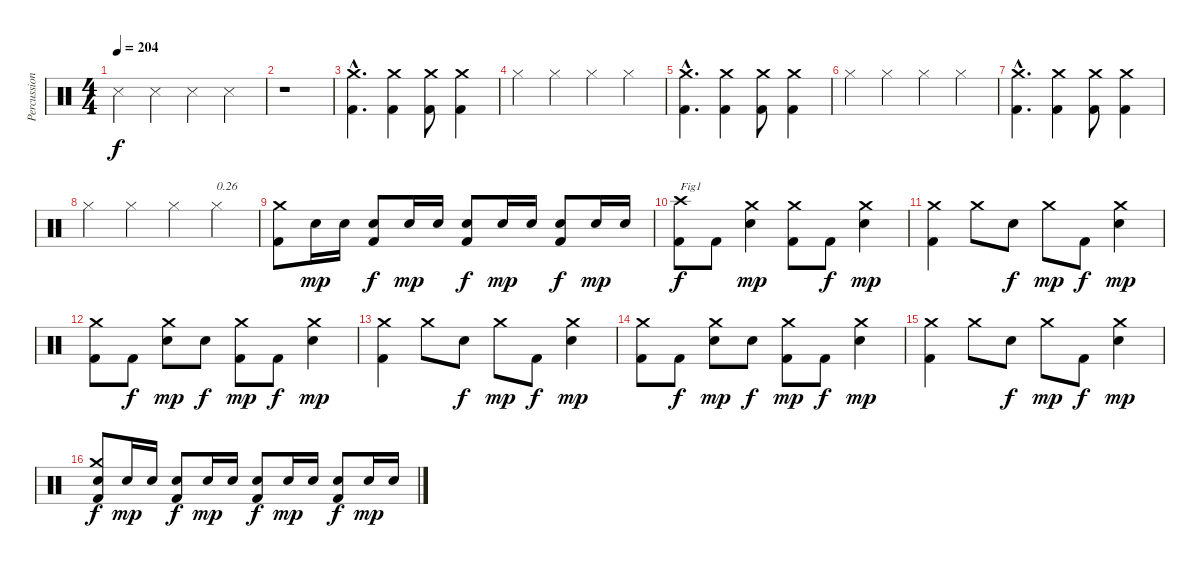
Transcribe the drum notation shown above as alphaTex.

\track ("Percussions" "Percussion") {instrument percussion}
\staff {score}
\articulation defaults
\ts (4 4)
\tempo 204
\clef neutral
\ks c "Metronome (hit)".4{dy f} "Metronome (hit)".4 "Metronome (hit)".4 "Metronome (hit)".4
|
r.1 |
("Kick (hit) 2"{hac} "Crash medium (hit)"{hac}).4{d} ("Kick (hit) 2" "Crash medium (hit)").4 ("Kick (hit) 2" "Crash medium (hit)").8 ("Kick (hit) 2" "Crash medium (hit)").4 |
"Hi-Hat (closed)".4 "Hi-Hat (closed)".4 "Hi-Hat (closed)".4 "Hi-Hat (closed)".4 |
("Kick (hit) 2"{hac} "Crash medium (hit)"{hac}).4{d} ("Kick (hit) 2" "Crash medium (hit)").4 ("Kick (hit) 2" "Crash medium (hit)").8 ("Kick (hit) 2" "Crash medium (hit)").4 |
"Hi-Hat (closed)".4 "Hi-Hat (closed)".4 "Hi-Hat (closed)".4 "Hi-Hat (closed)".4 |
("Kick (hit) 2"{hac} "Crash medium (hit)"{hac}).4{d} ("Kick (hit) 2" "Crash medium (hit)").4 ("Kick (hit) 2" "Crash medium (hit)").8 ("Kick (hit) 2" "Crash medium (hit)").4 |
"Hi-Hat (closed)".4 "Hi-Hat (closed)".4 "Hi-Hat (closed)".4 "Hi-Hat (closed)".4{txt "0.26"} |
("Kick (hit) 2" "Crash medium (hit)").8 "Electric Snare (hit)".16{dy mp} "Electric Snare (hit)".16 ("Kick (hit) 2" "Electric Snare (hit)").8{dy f} "Electric Snare (hit)".16{dy mp} "Electric Snare (hit)".16 ("Kick (hit) 2" "Electric Snare (hit)").8{dy f} "Electric Snare (hit)".16{dy mp} "Electric Snare (hit)".16 ("Kick (hit) 2" "Electric Snare (hit)").8{dy f} "Electric Snare (hit)".16{dy mp} "Electric Snare (hit)".16 |
("Kick (hit) 2" "Crash high (hit)").8{txt "Fig1" dy f} "Kick (hit) 2".8 ("Electric Snare (hit)" "Crash medium (hit)").4{dy mp} ("Kick (hit) 2" "Crash medium (hit)").8 "Kick (hit) 2".8{dy f} ("Electric Snare (hit)" "Crash medium (hit)").4{dy mp} |
("Kick (hit) 2" "Crash medium (hit)").4 "Crash medium (hit)".8 "Electric Snare (hit)".8{dy f} "Crash medium (hit)".8{dy mp} "Kick (hit) 2".8{dy f} ("Electric Snare (hit)" "Crash medium (hit)").4{dy mp} |
("Kick (hit) 2" "Crash medium (hit)").8 "Kick (hit) 2".8{dy f} ("Electric Snare (hit)" "Crash medium (hit)").8{dy mp} "Electric Snare (hit)".8{dy f} ("Kick (hit) 2" "Crash medium (hit)").8{dy mp} "Kick (hit) 2".8{dy f} ("Electric Snare (hit)" "Crash medium (hit)").4{dy mp} |
("Kick (hit) 2" "Crash medium (hit)").4 "Crash medium (hit)".8 "Electric Snare (hit)".8{dy f} "Crash medium (hit)".8{dy mp} "Kick (hit) 2".8{dy f} ("Electric Snare (hit)" "Crash medium (hit)").4{dy mp} |
("Kick (hit) 2" "Crash medium (hit)").8 "Kick (hit) 2".8{dy f} ("Electric Snare (hit)" "Crash medium (hit)").8{dy mp} "Electric Snare (hit)".8{dy f} ("Kick (hit) 2" "Crash medium (hit)").8{dy mp} "Kick (hit) 2".8{dy f} ("Electric Snare (hit)" "Crash medium (hit)").4{dy mp} |
("Kick (hit) 2" "Crash medium (hit)").4 "Crash medium (hit)".8 "Electric Snare (hit)".8{dy f} "Crash medium (hit)".8{dy mp} "Kick (hit) 2".8{dy f} ("Electric Snare (hit)" "Crash medium (hit)").4{dy mp} |
("Kick (hit) 2" "Electric Snare (hit)" "Crash medium (hit)").8{dy f} "Electric Snare (hit)".16{dy mp} "Electric Snare (hit)".16 ("Kick (hit) 2" "Electric Snare (hit)").8{dy f} "Electric Snare (hit)".16{dy mp} "Electric Snare (hit)".16 ("Kick (hit) 2" "Electric Snare (hit)").8{dy f} "Electric Snare (hit)".16{dy mp} "Electric Snare (hit)".16 ("Kick (hit) 2" "Electric Snare (hit)").8{dy f} "Electric Snare (hit)".16{dy mp} "Electric Snare (hit)".16
